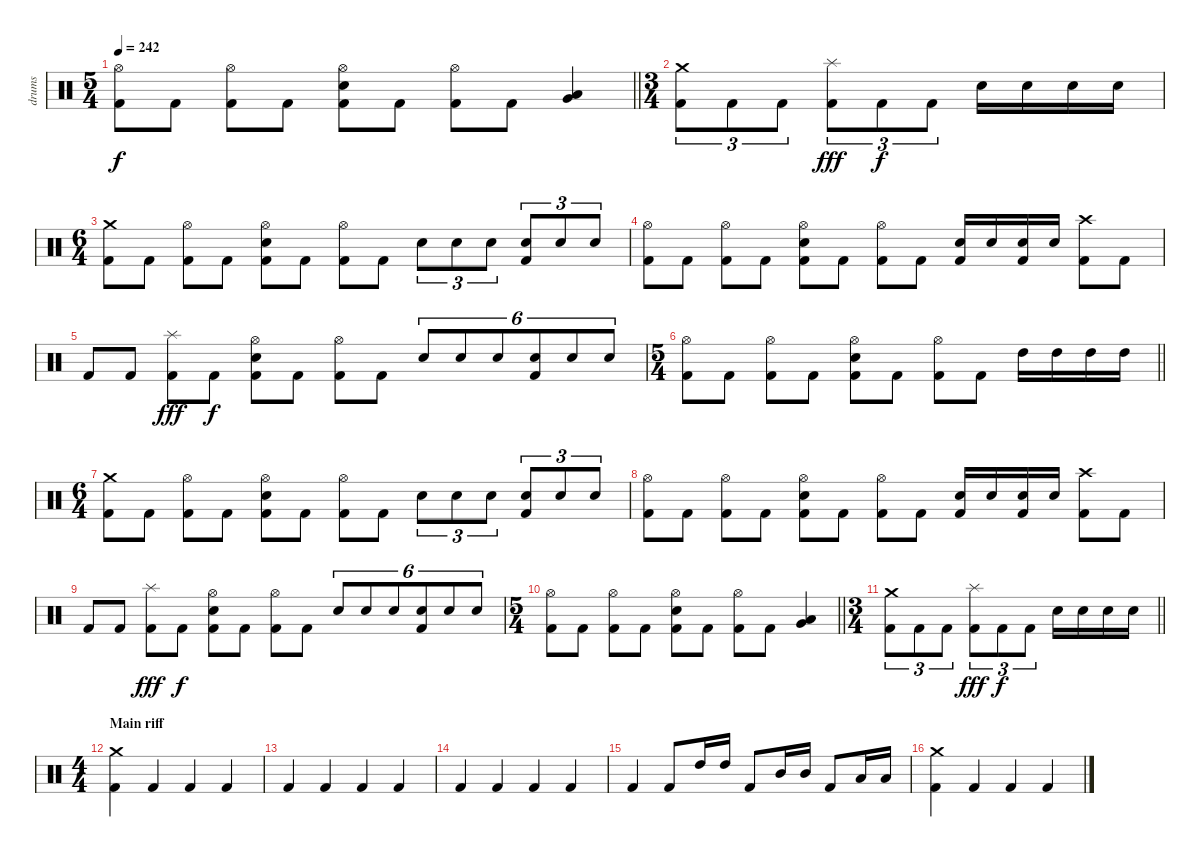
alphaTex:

\track ("drums" "drums") {instrument percussion}
\staff {score}
\articulation defaults
\ts (5 4)
\tempo 242
\clef neutral
\barLineRight lightlight
\ks c
("Hi-Hat (open)" "Kick (hit) 2").8{dy f} "Kick (hit) 2".8 ("Hi-Hat (open)" "Kick (hit) 2").8 "Kick (hit) 2".8 ("Hi-Hat (open)" "Electric Snare (hit)" "Kick (hit) 2").8 "Kick (hit) 2".8 ("Hi-Hat (open)" "Kick (hit) 2").8 "Kick (hit) 2".8 ("Low Tom (hit)" "Very Low Tom (hit)").4 |
\ts (3 4)
("Crash medium (hit)" "Kick (hit) 2").8{tu (3 2)} "Kick (hit) 2".8{tu (3 2)} "Kick (hit) 2".8{tu (3 2)} ("Splash (hit)" "Kick (hit) 2").8{tu (3 2) dy fff} "Kick (hit) 2".8{tu (3 2) dy f} "Kick (hit) 2".8{tu (3 2)} "Electric Snare (hit)".16 "Electric Snare (hit)".16 "Electric Snare (hit)".16 "Electric Snare (hit)".16 |
\ts (6 4)
("Crash medium (hit)" "Kick (hit) 2").8 "Kick (hit) 2".8 ("Hi-Hat (open)" "Kick (hit) 2").8 "Kick (hit) 2".8 ("Hi-Hat (open)" "Electric Snare (hit)" "Kick (hit) 2").8 "Kick (hit) 2".8 ("Hi-Hat (open)" "Kick (hit) 2").8 "Kick (hit) 2".8 "Electric Snare (hit)".8{tu (3 2)} "Electric Snare (hit)".8{tu (3 2)} "Electric Snare (hit)".8{tu (3 2)} ("Electric Snare (hit)" "Kick (hit) 2").8{tu (3 2)} "Electric Snare (hit)".8{tu (3 2)} "Electric Snare (hit)".8{tu (3 2)} |
("Hi-Hat (open)" "Kick (hit) 2").8 "Kick (hit) 2".8 ("Hi-Hat (open)" "Kick (hit) 2").8 "Kick (hit) 2".8 ("Hi-Hat (open)" "Electric Snare (hit)" "Kick (hit) 2").8 "Kick (hit) 2".8 ("Hi-Hat (open)" "Kick (hit) 2").8 "Kick (hit) 2".8 ("Electric Snare (hit)" "Kick (hit) 2").16 "Electric Snare (hit)".16 ("Electric Snare (hit)" "Kick (hit) 2").16 "Electric Snare (hit)".16 ("Crash high (hit)" "Kick (hit) 2").8 "Kick (hit) 2".8 |
"Kick (hit) 2".8 "Kick (hit) 2".8 ("Splash (hit)" "Kick (hit) 2").8{dy fff} "Kick (hit) 2".8{dy f} ("Hi-Hat (open)" "Electric Snare (hit)" "Kick (hit) 2").8 "Kick (hit) 2".8 ("Hi-Hat (open)" "Kick (hit) 2").8 "Kick (hit) 2".8 "Electric Snare (hit)".8{tu (6 4)} "Electric Snare (hit)".8{tu (6 4)} "Electric Snare (hit)".8{tu (6 4)} ("Electric Snare (hit)" "Kick (hit) 2").8{tu (6 4)} "Electric Snare (hit)".8{tu (6 4)} "Electric Snare (hit)".8{tu (6 4)} |
\ts (5 4)
\barLineRight lightlight
("Hi-Hat (open)" "Kick (hit) 2").8 "Kick (hit) 2".8 ("Hi-Hat (open)" "Kick (hit) 2").8 "Kick (hit) 2".8 ("Hi-Hat (open)" "Electric Snare (hit)" "Kick (hit) 2").8 "Kick (hit) 2".8 ("Hi-Hat (open)" "Kick (hit) 2").8 "Kick (hit) 2".8 "High Tom (hit)".16 "High Tom (hit)".16 "High Tom (hit)".16 "High Tom (hit)".16 |
\ts (6 4)
("Crash medium (hit)" "Kick (hit) 2").8 "Kick (hit) 2".8 ("Hi-Hat (open)" "Kick (hit) 2").8 "Kick (hit) 2".8 ("Hi-Hat (open)" "Electric Snare (hit)" "Kick (hit) 2").8 "Kick (hit) 2".8 ("Hi-Hat (open)" "Kick (hit) 2").8 "Kick (hit) 2".8 "Electric Snare (hit)".8{tu (3 2)} "Electric Snare (hit)".8{tu (3 2)} "Electric Snare (hit)".8{tu (3 2)} ("Electric Snare (hit)" "Kick (hit) 2").8{tu (3 2)} "Electric Snare (hit)".8{tu (3 2)} "Electric Snare (hit)".8{tu (3 2)} |
("Hi-Hat (open)" "Kick (hit) 2").8 "Kick (hit) 2".8 ("Hi-Hat (open)" "Kick (hit) 2").8 "Kick (hit) 2".8 ("Hi-Hat (open)" "Electric Snare (hit)" "Kick (hit) 2").8 "Kick (hit) 2".8 ("Hi-Hat (open)" "Kick (hit) 2").8 "Kick (hit) 2".8 ("Electric Snare (hit)" "Kick (hit) 2").16 "Electric Snare (hit)".16 ("Electric Snare (hit)" "Kick (hit) 2").16 "Electric Snare (hit)".16 ("Crash high (hit)" "Kick (hit) 2").8 "Kick (hit) 2".8 |
"Kick (hit) 2".8 "Kick (hit) 2".8 ("Splash (hit)" "Kick (hit) 2").8{dy fff} "Kick (hit) 2".8{dy f} ("Hi-Hat (open)" "Electric Snare (hit)" "Kick (hit) 2").8 "Kick (hit) 2".8 ("Hi-Hat (open)" "Kick (hit) 2").8 "Kick (hit) 2".8 "Electric Snare (hit)".8{tu (6 4)} "Electric Snare (hit)".8{tu (6 4)} "Electric Snare (hit)".8{tu (6 4)} ("Electric Snare (hit)" "Kick (hit) 2").8{tu (6 4)} "Electric Snare (hit)".8{tu (6 4)} "Electric Snare (hit)".8{tu (6 4)} |
\ts (5 4)
\barLineRight lightlight
("Hi-Hat (open)" "Kick (hit) 2").8 "Kick (hit) 2".8 ("Hi-Hat (open)" "Kick (hit) 2").8 "Kick (hit) 2".8 ("Hi-Hat (open)" "Electric Snare (hit)" "Kick (hit) 2").8 "Kick (hit) 2".8 ("Hi-Hat (open)" "Kick (hit) 2").8 "Kick (hit) 2".8 ("Low Tom (hit)" "Very Low Tom (hit)").4 |
\ts (3 4)
\barLineRight lightlight
("Crash medium (hit)" "Kick (hit) 2").8{tu (3 2)} "Kick (hit) 2".8{tu (3 2)} "Kick (hit) 2".8{tu (3 2)} ("Splash (hit)" "Kick (hit) 2").8{tu (3 2) dy fff} "Kick (hit) 2".8{tu (3 2) dy f} "Kick (hit) 2".8{tu (3 2)} "Electric Snare (hit)".16 "Electric Snare (hit)".16 "Electric Snare (hit)".16 "Electric Snare (hit)".16 |
\ts (4 4)
\section ("" "Main riff")
("Crash medium (hit)" "Kick (hit) 2").4 "Kick (hit) 2".4 "Kick (hit) 2".4 "Kick (hit) 2".4 |
"Kick (hit) 2".4 "Kick (hit) 2".4 "Kick (hit) 2".4 "Kick (hit) 2".4 |
"Kick (hit) 2".4 "Kick (hit) 2".4 "Kick (hit) 2".4 "Kick (hit) 2".4 |
"Kick (hit) 2".4 "Kick (hit) 2".8 "High Tom (hit)".16 "High Tom (hit)".16 "Kick (hit) 2".8 "Mid Tom (hit)".16 "Mid Tom (hit)".16 "Kick (hit) 2".8 "Low Tom (hit)".16 "Low Tom (hit)".16 |
("Crash medium (hit)" "Kick (hit) 2").4 "Kick (hit) 2".4 "Kick (hit) 2".4 "Kick (hit) 2".4
